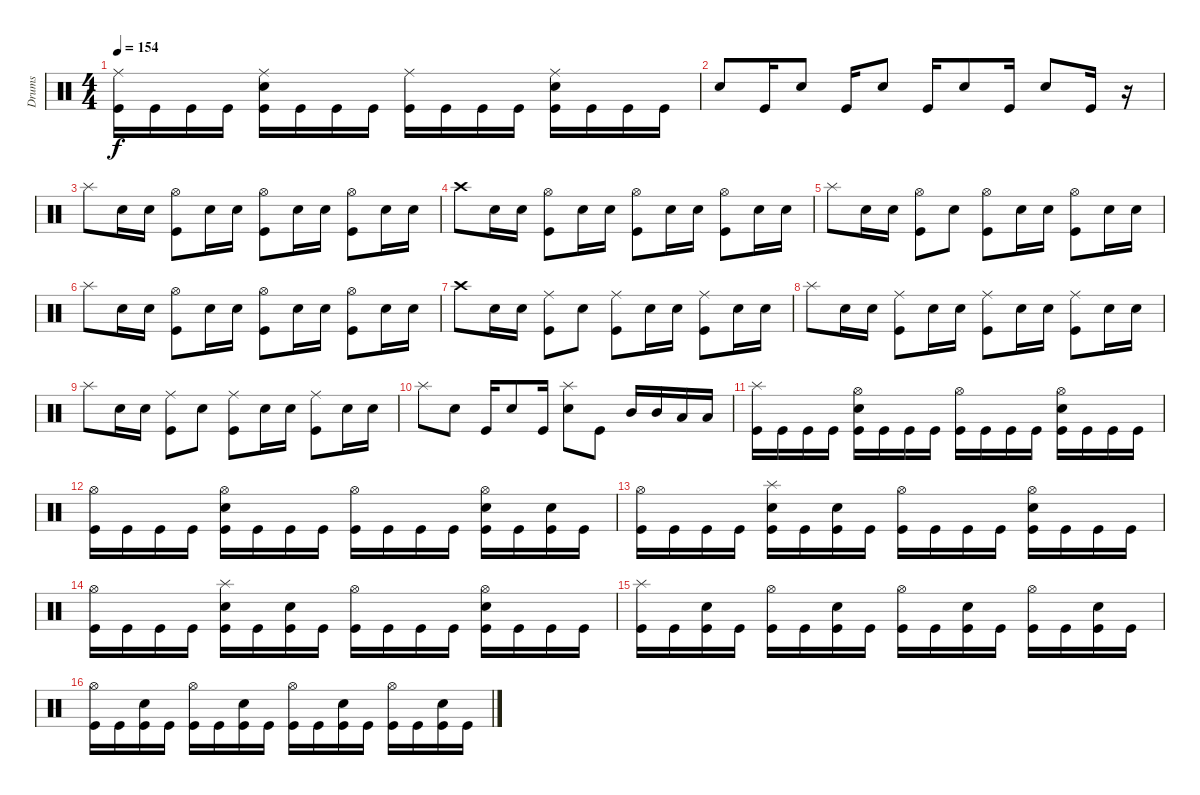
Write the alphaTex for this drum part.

\track ("Drums" "Drums") {instrument percussion}
\staff {score}
\articulation defaults
\ts (4 4)
\tempo 154
\clef neutral
\ks c
("Ride (middle)" "Kick (hit)").16{dy f} "Kick (hit)".16 "Kick (hit)".16 "Kick (hit)".16 ("Ride (middle)" "Snare (hit) 2" "Kick (hit)").16 "Kick (hit)".16 "Kick (hit)".16 "Kick (hit)".16 ("Ride (middle)" "Kick (hit)").16 "Kick (hit)".16 "Kick (hit)".16 "Kick (hit)".16 ("Ride (middle)" "Snare (hit) 2" "Kick (hit)").16 "Kick (hit)".16 "Kick (hit)".16 "Kick (hit)".16 |
"Snare (hit) 2".8 "Kick (hit)".16 "Snare (hit) 2".8 "Kick (hit)".16 "Snare (hit) 2".8 "Kick (hit)".16 "Snare (hit) 2".8 "Kick (hit)".16 "Snare (hit) 2".8 "Kick (hit)".16 r.16 |
"Splash (hit)".8 "Snare (hit) 2".16 "Snare (hit) 2".16 ("Hi-Hat (open)" "Kick (hit)").8 "Snare (hit) 2".16 "Snare (hit) 2".16 ("Hi-Hat (open)" "Kick (hit)").8 "Snare (hit) 2".16 "Snare (hit) 2".16 ("Hi-Hat (open)" "Kick (hit)").8 "Snare (hit) 2".16 "Snare (hit) 2".16 |
"Crash high (hit)".8 "Snare (hit) 2".16 "Snare (hit) 2".16 ("Hi-Hat (open)" "Kick (hit)").8 "Snare (hit) 2".16 "Snare (hit) 2".16 ("Hi-Hat (open)" "Kick (hit)").8 "Snare (hit) 2".16 "Snare (hit) 2".16 ("Hi-Hat (open)" "Kick (hit)").8 "Snare (hit) 2".16 "Snare (hit) 2".16 |
"Splash (hit)".8 "Snare (hit) 2".16 "Snare (hit) 2".16 ("Hi-Hat (open)" "Kick (hit)").8 "Snare (hit) 2".8 ("Hi-Hat (open)" "Kick (hit)").8 "Snare (hit) 2".16 "Snare (hit) 2".16 ("Hi-Hat (open)" "Kick (hit)").8 "Snare (hit) 2".16 "Snare (hit) 2".16 |
"Splash (hit)".8 "Snare (hit) 2".16 "Snare (hit) 2".16 ("Hi-Hat (open)" "Kick (hit)").8 "Snare (hit) 2".16 "Snare (hit) 2".16 ("Hi-Hat (open)" "Kick (hit)").8 "Snare (hit) 2".16 "Snare (hit) 2".16 ("Hi-Hat (open)" "Kick (hit)").8 "Snare (hit) 2".16 "Snare (hit) 2".16 |
"Crash high (hit)".8 "Snare (hit) 2".16 "Snare (hit) 2".16 ("Ride (middle)" "Kick (hit)").8 "Snare (hit) 2".8 ("Ride (middle)" "Kick (hit)").8 "Snare (hit) 2".16 "Snare (hit) 2".16 ("Ride (middle)" "Kick (hit)").8 "Snare (hit) 2".16 "Snare (hit) 2".16 |
"Splash (hit)".8 "Snare (hit) 2".16 "Snare (hit) 2".16 ("Ride (middle)" "Kick (hit)").8 "Snare (hit) 2".16 "Snare (hit) 2".16 ("Ride (middle)" "Kick (hit)").8 "Snare (hit) 2".16 "Snare (hit) 2".16 ("Ride (middle)" "Kick (hit)").8 "Snare (hit) 2".16 "Snare (hit) 2".16 |
"Splash (hit)".8 "Snare (hit) 2".16 "Snare (hit) 2".16 ("Ride (middle)" "Kick (hit)").8 "Snare (hit) 2".8 ("Ride (middle)" "Kick (hit)").8 "Snare (hit) 2".16 "Snare (hit) 2".16 ("Ride (middle)" "Kick (hit)").8 "Snare (hit) 2".16 "Snare (hit) 2".16 |
"Splash (hit)".8 "Snare (hit) 2".8 "Kick (hit)".16 "Snare (hit) 2".8 "Kick (hit)".16 ("Splash (hit)" "Snare (hit) 2").8 "Kick (hit)".8 "Mid Tom (hit)".16 "Mid Tom (hit)".16 "Low Tom (hit)".16 "Low Tom (hit)".16 |
("Splash (hit)" "Kick (hit)").16 "Kick (hit)".16 "Kick (hit)".16 "Kick (hit)".16 ("Hi-Hat (open)" "Snare (hit) 2" "Kick (hit)").16 "Kick (hit)".16 "Kick (hit)".16 "Kick (hit)".16 ("Hi-Hat (open)" "Kick (hit)").16 "Kick (hit)".16 "Kick (hit)".16 "Kick (hit)".16 ("Hi-Hat (open)" "Snare (hit) 2" "Kick (hit)").16 "Kick (hit)".16 "Kick (hit)".16 "Kick (hit)".16 |
("Hi-Hat (open)" "Kick (hit)").16 "Kick (hit)".16 "Kick (hit)".16 "Kick (hit)".16 ("Hi-Hat (open)" "Snare (hit) 2" "Kick (hit)").16 "Kick (hit)".16 "Kick (hit)".16 "Kick (hit)".16 ("Hi-Hat (open)" "Kick (hit)").16 "Kick (hit)".16 "Kick (hit)".16 "Kick (hit)".16 ("Hi-Hat (open)" "Snare (hit) 2" "Kick (hit)").16 "Kick (hit)".16 ("Snare (hit) 2" "Kick (hit)").16 "Kick (hit)".16 |
("Hi-Hat (open)" "Kick (hit)").16 "Kick (hit)".16 "Kick (hit)".16 "Kick (hit)".16 ("Splash (hit)" "Snare (hit) 2" "Kick (hit)").16 "Kick (hit)".16 ("Snare (hit) 2" "Kick (hit)").16 "Kick (hit)".16 ("Hi-Hat (open)" "Kick (hit)").16 "Kick (hit)".16 "Kick (hit)".16 "Kick (hit)".16 ("Hi-Hat (open)" "Snare (hit) 2" "Kick (hit)").16 "Kick (hit)".16 "Kick (hit)".16 "Kick (hit)".16 |
("Hi-Hat (open)" "Kick (hit)").16 "Kick (hit)".16 "Kick (hit)".16 "Kick (hit)".16 ("Splash (hit)" "Snare (hit) 2" "Kick (hit)").16 "Kick (hit)".16 ("Snare (hit) 2" "Kick (hit)").16 "Kick (hit)".16 ("Hi-Hat (open)" "Kick (hit)").16 "Kick (hit)".16 "Kick (hit)".16 "Kick (hit)".16 ("Hi-Hat (open)" "Snare (hit) 2" "Kick (hit)").16 "Kick (hit)".16 "Kick (hit)".16 "Kick (hit)".16 |
("Splash (hit)" "Kick (hit)").16 "Kick (hit)".16 ("Snare (hit) 2" "Kick (hit)").16 "Kick (hit)".16 ("Hi-Hat (open)" "Kick (hit)").16 "Kick (hit)".16 ("Snare (hit) 2" "Kick (hit)").16 "Kick (hit)".16 ("Hi-Hat (open)" "Kick (hit)").16 "Kick (hit)".16 ("Snare (hit) 2" "Kick (hit)").16 "Kick (hit)".16 ("Hi-Hat (open)" "Kick (hit)").16 "Kick (hit)".16 ("Snare (hit) 2" "Kick (hit)").16 "Kick (hit)".16 |
("Hi-Hat (open)" "Kick (hit)").16 "Kick (hit)".16 ("Snare (hit) 2" "Kick (hit)").16 "Kick (hit)".16 ("Hi-Hat (open)" "Kick (hit)").16 "Kick (hit)".16 ("Snare (hit) 2" "Kick (hit)").16 "Kick (hit)".16 ("Hi-Hat (open)" "Kick (hit)").16 "Kick (hit)".16 ("Snare (hit) 2" "Kick (hit)").16 "Kick (hit)".16 ("Hi-Hat (open)" "Kick (hit)").16 "Kick (hit)".16 ("Snare (hit) 2" "Kick (hit)").16 "Kick (hit)".16
